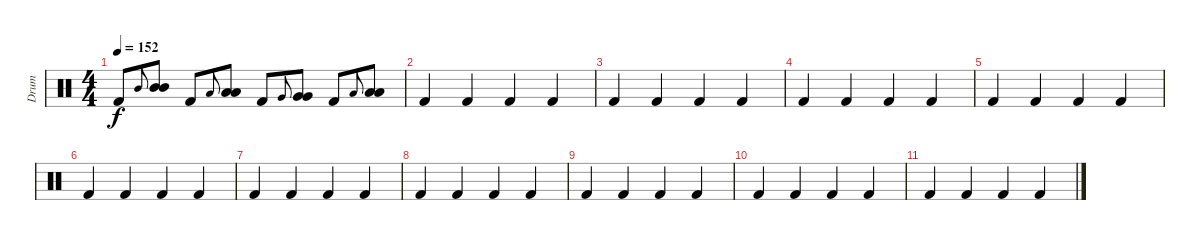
\track ("Drum" "Drum") {instrument percussion}
\staff {score}
\articulation defaults
\ts (4 4)
\tempo 152
\clef neutral
\ks c "Kick (hit) 2".8{dy f} "Mid Tom (hit)".8{gr onbeat}
("Mid Tom (hit)" "Mid Tom (hit)").8 "Kick (hit) 2".8 "Low Tom (hit)".8{gr onbeat} ("Low Tom (hit)" "Low Tom (hit)").8 "Kick (hit) 2".8 "Very Low Tom (hit)".8{gr onbeat} ("Very Low Tom (hit)" "Very Low Tom (hit)").8 "Kick (hit) 2".8 "Low Floor Tom (hit)".8{gr onbeat} ("Low Floor Tom (hit)" "Low Floor Tom (hit)").8 |
"Kick (hit) 2".4 "Kick (hit) 2".4 "Kick (hit) 2".4 "Kick (hit) 2".4 |
"Kick (hit) 2".4 "Kick (hit) 2".4 "Kick (hit) 2".4 "Kick (hit) 2".4 |
"Kick (hit) 2".4 "Kick (hit) 2".4 "Kick (hit) 2".4 "Kick (hit) 2".4 |
"Kick (hit) 2".4 "Kick (hit) 2".4 "Kick (hit) 2".4 "Kick (hit) 2".4 |
"Kick (hit) 2".4 "Kick (hit) 2".4 "Kick (hit) 2".4 "Kick (hit) 2".4 |
"Kick (hit) 2".4 "Kick (hit) 2".4 "Kick (hit) 2".4 "Kick (hit) 2".4 |
"Kick (hit) 2".4 "Kick (hit) 2".4 "Kick (hit) 2".4 "Kick (hit) 2".4 |
"Kick (hit) 2".4 "Kick (hit) 2".4 "Kick (hit) 2".4 "Kick (hit) 2".4 |
"Kick (hit) 2".4 "Kick (hit) 2".4 "Kick (hit) 2".4 "Kick (hit) 2".4 |
"Kick (hit) 2".4 "Kick (hit) 2".4 "Kick (hit) 2".4 "Kick (hit) 2".4
